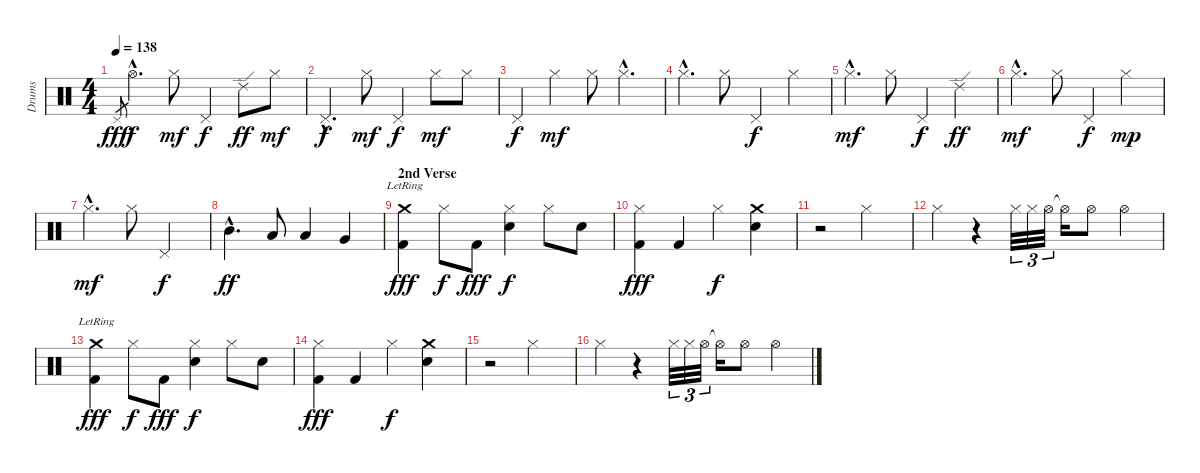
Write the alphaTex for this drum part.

\track ("Drums" "Drums") {instrument percussion}
\staff {score}
\articulation defaults
\ts (4 4)
\tempo 138
\clef neutral
\ks c "Pedal Hi-Hat (hit)"{sl}.8{gr dy fff} "Hi-Hat (open)"{hac}.4{d dy f} "Hi-Hat (closed)".8{dy mf} "Pedal Hi-Hat (hit)".4{dy f} "Ride (edge) 2".8{dy ff} "Hi-Hat (closed)".8{dy mf}
|
"Pedal Hi-Hat (hit)"{hac}.4{d dy f} "Hi-Hat (closed)".8{dy mf} "Pedal Hi-Hat (hit)".4{dy f} "Hi-Hat (closed)".8{dy mf} "Hi-Hat (closed)".8 |
"Pedal Hi-Hat (hit)".4{dy f} "Hi-Hat (closed)".4{dy mf} "Hi-Hat (closed)".8 "Hi-Hat (closed)"{hac}.4{d} |
"Hi-Hat (closed)"{hac}.4{d} "Hi-Hat (closed)".8 "Pedal Hi-Hat (hit)".4{dy f} "Hi-Hat (closed)".4 |
"Hi-Hat (closed)"{hac}.4{d dy mf} "Hi-Hat (closed)".8 "Pedal Hi-Hat (hit)".4{dy f} "Ride (edge) 2".4{dy ff} |
"Hi-Hat (closed)"{hac}.4{d dy mf} "Hi-Hat (closed)".8 "Pedal Hi-Hat (hit)".4{dy f} "Hi-Hat (closed)".4{dy mp} |
"Hi-Hat (closed)"{hac}.4{d dy mf} "Hi-Hat (closed)".8 "Pedal Hi-Hat (hit)".2{dy f} |
"Mid Tom (hit)"{hac}.4{d dy ff} "Low Tom (hit)".8 "Low Tom (hit)".4 "Very Low Tom (hit)".4 |
\section ("" "2nd Verse")
("Crash medium (hit)"{lr} "Kick (hit) 2").4{dy fff} "Hi-Hat (closed)".8{dy f} "Kick (hit) 2".8{dy fff} ("Hi-Hat (closed)" "Snare (hit) 2").4{dy f} "Hi-Hat (closed)".8 "Snare (hit) 2".8 |
("Hi-Hat (closed)" "Kick (hit) 2").4{dy fff} "Kick (hit) 2".4 "Hi-Hat (closed)".4{dy f} ("Crash medium (hit)" "Snare (hit) 2").4 |
r.2 "Hi-Hat (closed)".2 |
"Hi-Hat (closed)".4 r.4 "Hi-Hat (closed)".32{tu (3 2)} "Hi-Hat (closed)".32{tu (3 2)} "Hi-Hat (open)".32{tu (3 2)} "Hi-Hat (open)"{t}.16 "Hi-Hat (open)".8 "Hi-Hat (open)".4 |
("Crash medium (hit)"{lr} "Kick (hit) 2").4{dy fff} "Hi-Hat (closed)".8{dy f} "Kick (hit) 2".8{dy fff} ("Hi-Hat (closed)" "Snare (hit) 2").4{dy f} "Hi-Hat (closed)".8 "Snare (hit) 2".8 |
("Hi-Hat (closed)" "Kick (hit) 2").4{dy fff} "Kick (hit) 2".4 "Hi-Hat (closed)".4{dy f} ("Crash medium (hit)" "Snare (hit) 2").4 |
r.2 "Hi-Hat (closed)".2 |
"Hi-Hat (closed)".4 r.4 "Hi-Hat (closed)".32{tu (3 2)} "Hi-Hat (closed)".32{tu (3 2)} "Hi-Hat (open)".32{tu (3 2)} "Hi-Hat (open)"{t}.16 "Hi-Hat (open)".8 "Hi-Hat (open)".4
